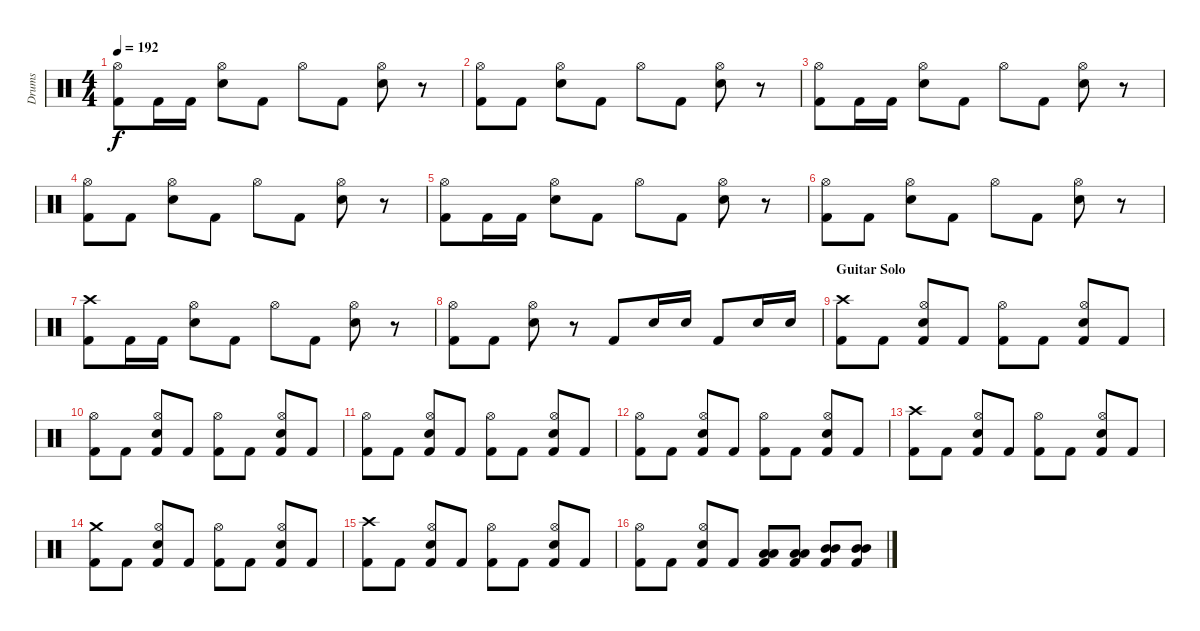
\track ("Drums" "Drums") {instrument percussion}
\staff {score}
\articulation defaults
\ts (4 4)
\tempo 192
\clef neutral
\ks c
("Kick (hit) 2" "Hi-Hat (open)").8{dy f} "Kick (hit) 2".16 "Kick (hit) 2".16 ("Snare (hit) 2" "Hi-Hat (open)").8 "Kick (hit) 2".8 "Hi-Hat (open)".8 "Kick (hit) 2".8 ("Snare (hit) 2" "Hi-Hat (open)").8 r.8 |
("Kick (hit) 2" "Hi-Hat (open)").8 "Kick (hit) 2".8 ("Snare (hit) 2" "Hi-Hat (open)").8 "Kick (hit) 2".8 "Hi-Hat (open)".8 "Kick (hit) 2".8 ("Snare (hit) 2" "Hi-Hat (open)").8 r.8 |
("Kick (hit) 2" "Hi-Hat (open)").8 "Kick (hit) 2".16 "Kick (hit) 2".16 ("Snare (hit) 2" "Hi-Hat (open)").8 "Kick (hit) 2".8 "Hi-Hat (open)".8 "Kick (hit) 2".8 ("Snare (hit) 2" "Hi-Hat (open)").8 r.8 |
("Kick (hit) 2" "Hi-Hat (open)").8 "Kick (hit) 2".8 ("Snare (hit) 2" "Hi-Hat (open)").8 "Kick (hit) 2".8 "Hi-Hat (open)".8 "Kick (hit) 2".8 ("Snare (hit) 2" "Hi-Hat (open)").8 r.8 |
("Kick (hit) 2" "Hi-Hat (open)").8 "Kick (hit) 2".16 "Kick (hit) 2".16 ("Snare (hit) 2" "Hi-Hat (open)").8 "Kick (hit) 2".8 "Hi-Hat (open)".8 "Kick (hit) 2".8 ("Snare (hit) 2" "Hi-Hat (open)").8 r.8 |
("Kick (hit) 2" "Hi-Hat (open)").8 "Kick (hit) 2".8 ("Snare (hit) 2" "Hi-Hat (open)").8 "Kick (hit) 2".8 "Hi-Hat (open)".8 "Kick (hit) 2".8 ("Snare (hit) 2" "Hi-Hat (open)").8 r.8 |
("Kick (hit) 2" "Crash high (hit)").8 "Kick (hit) 2".16 "Kick (hit) 2".16 ("Snare (hit) 2" "Hi-Hat (open)").8 "Kick (hit) 2".8 "Hi-Hat (open)".8 "Kick (hit) 2".8 ("Snare (hit) 2" "Hi-Hat (open)").8 r.8 |
("Kick (hit) 2" "Hi-Hat (open)").8 "Kick (hit) 2".8 ("Snare (hit) 2" "Hi-Hat (open)").8 r.8 "Kick (hit) 2".8 "Snare (hit) 2".16 "Snare (hit) 2".16 "Kick (hit) 2".8 "Snare (hit) 2".16 "Snare (hit) 2".16 |
\section ("" "Guitar Solo")
("Kick (hit) 2" "Crash high (hit)").8 "Kick (hit) 2".8 ("Kick (hit) 2" "Snare (hit) 2" "Hi-Hat (open)").8 "Kick (hit) 2".8 ("Kick (hit) 2" "Hi-Hat (open)").8 "Kick (hit) 2".8 ("Kick (hit) 2" "Snare (hit) 2" "Hi-Hat (open)").8 "Kick (hit) 2".8 |
("Kick (hit) 2" "Hi-Hat (open)").8 "Kick (hit) 2".8 ("Kick (hit) 2" "Snare (hit) 2" "Hi-Hat (open)").8 "Kick (hit) 2".8 ("Kick (hit) 2" "Hi-Hat (open)").8 "Kick (hit) 2".8 ("Kick (hit) 2" "Snare (hit) 2" "Hi-Hat (open)").8 "Kick (hit) 2".8 |
("Kick (hit) 2" "Hi-Hat (open)").8 "Kick (hit) 2".8 ("Kick (hit) 2" "Snare (hit) 2" "Hi-Hat (open)").8 "Kick (hit) 2".8 ("Kick (hit) 2" "Hi-Hat (open)").8 "Kick (hit) 2".8 ("Kick (hit) 2" "Snare (hit) 2" "Hi-Hat (open)").8 "Kick (hit) 2".8 |
("Kick (hit) 2" "Hi-Hat (open)").8 "Kick (hit) 2".8 ("Kick (hit) 2" "Snare (hit) 2" "Hi-Hat (open)").8 "Kick (hit) 2".8 ("Kick (hit) 2" "Hi-Hat (open)").8 "Kick (hit) 2".8 ("Kick (hit) 2" "Snare (hit) 2" "Hi-Hat (open)").8 "Kick (hit) 2".8 |
("Kick (hit) 2" "Crash high (hit)").8 "Kick (hit) 2".8 ("Kick (hit) 2" "Snare (hit) 2" "Hi-Hat (open)").8 "Kick (hit) 2".8 ("Kick (hit) 2" "Hi-Hat (open)").8 "Kick (hit) 2".8 ("Kick (hit) 2" "Snare (hit) 2" "Hi-Hat (open)").8 "Kick (hit) 2".8 |
("Kick (hit) 2" "Crash medium (hit)").8 "Kick (hit) 2".8 ("Kick (hit) 2" "Snare (hit) 2" "Hi-Hat (open)").8 "Kick (hit) 2".8 ("Kick (hit) 2" "Hi-Hat (open)").8 "Kick (hit) 2".8 ("Kick (hit) 2" "Snare (hit) 2" "Hi-Hat (open)").8 "Kick (hit) 2".8 |
("Kick (hit) 2" "Crash high (hit)").8 "Kick (hit) 2".8 ("Kick (hit) 2" "Snare (hit) 2" "Hi-Hat (open)").8 "Kick (hit) 2".8 ("Kick (hit) 2" "Hi-Hat (open)").8 "Kick (hit) 2".8 ("Kick (hit) 2" "Snare (hit) 2" "Hi-Hat (open)").8 "Kick (hit) 2".8 |
("Kick (hit) 2" "Hi-Hat (open)").8 "Kick (hit) 2".8 ("Kick (hit) 2" "Snare (hit) 2" "Hi-Hat (open)").8 "Kick (hit) 2".8 ("Kick (hit) 2" "Low Tom (hit)" "Low Tom (hit)").8 ("Kick (hit) 2" "Low Tom (hit)" "Low Tom (hit)").8 ("Kick (hit) 2" "Mid Tom (hit)" "Mid Tom (hit)").8 ("Kick (hit) 2" "Mid Tom (hit)" "Mid Tom (hit)").8
